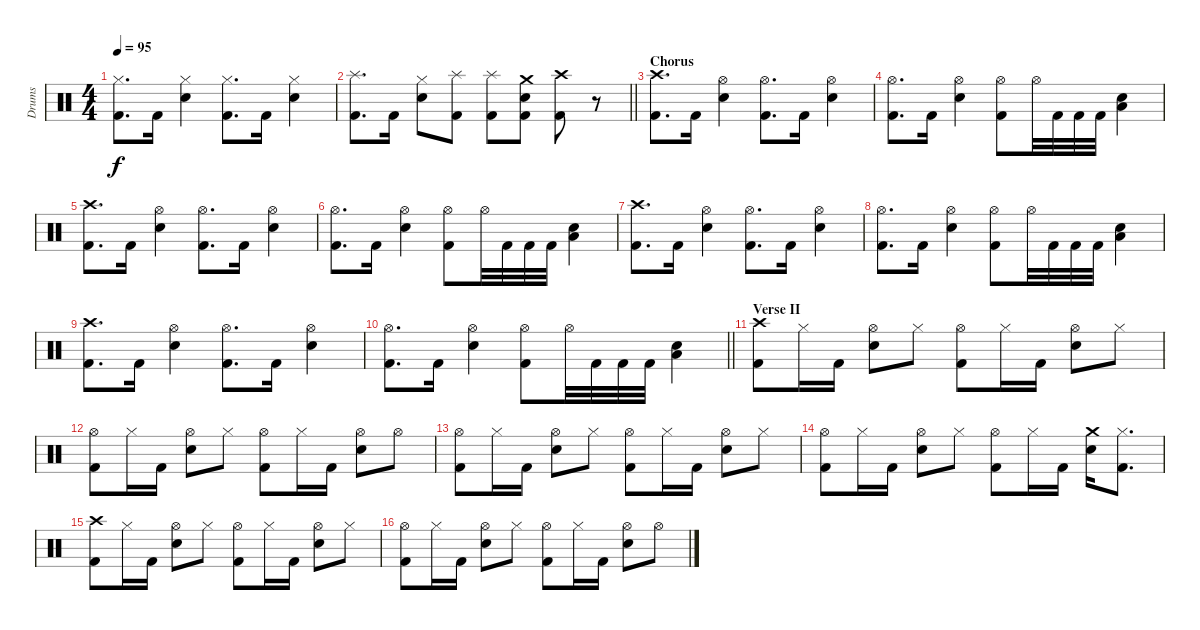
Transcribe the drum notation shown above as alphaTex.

\track ("Drums" "Drums") {instrument percussion}
\staff {score}
\articulation defaults
\ts (4 4)
\tempo 95
\clef neutral
\ks c
("Hi-Hat (closed)" "Kick (hit) 2").8{d dy f} "Kick (hit) 2".16 ("Hi-Hat (closed)" "Snare (hit) 2").4 ("Hi-Hat (closed)" "Kick (hit) 2").8{d} "Kick (hit) 2".16 ("Hi-Hat (closed)" "Snare (hit) 2").4 |
\barLineRight lightlight
("Splash (hit)" "Kick (hit) 2").8{d} "Kick (hit) 2".16 ("Hi-Hat (closed)" "Snare (hit) 2").8 ("Splash (hit)" "Kick (hit) 2").8 ("Splash (hit)" "Kick (hit) 2").8 ("Crash medium (hit)" "Snare (hit) 2" "Kick (hit) 2").8 ("Crash high (hit)" "Kick (hit) 2").8 r.8 |
\section ("" "Chorus")
("Crash high (hit)" "Kick (hit) 2").8{d} "Kick (hit) 2".16 ("Hi-Hat (open)" "Snare (hit) 2").4 ("Hi-Hat (open)" "Kick (hit) 2").8{d} "Kick (hit) 2".16 ("Hi-Hat (open)" "Snare (hit) 2").4 |
("Hi-Hat (open)" "Kick (hit) 2").8{d} "Kick (hit) 2".16 ("Hi-Hat (open)" "Snare (hit) 2").4 ("Hi-Hat (open)" "Kick (hit) 2").8 "Hi-Hat (open)".32 "Kick (hit) 2".32 "Kick (hit) 2".32 "Kick (hit) 2".32 ("Snare (hit) 2" "Low Floor Tom (hit)").4 |
("Crash high (hit)" "Kick (hit) 2").8{d} "Kick (hit) 2".16 ("Hi-Hat (open)" "Snare (hit) 2").4 ("Hi-Hat (open)" "Kick (hit) 2").8{d} "Kick (hit) 2".16 ("Hi-Hat (open)" "Snare (hit) 2").4 |
("Hi-Hat (open)" "Kick (hit) 2").8{d} "Kick (hit) 2".16 ("Hi-Hat (open)" "Snare (hit) 2").4 ("Hi-Hat (open)" "Kick (hit) 2").8 "Hi-Hat (open)".32 "Kick (hit) 2".32 "Kick (hit) 2".32 "Kick (hit) 2".32 ("Snare (hit) 2" "Low Floor Tom (hit)").4 |
("Crash high (hit)" "Kick (hit) 2").8{d} "Kick (hit) 2".16 ("Hi-Hat (open)" "Snare (hit) 2").4 ("Hi-Hat (open)" "Kick (hit) 2").8{d} "Kick (hit) 2".16 ("Hi-Hat (open)" "Snare (hit) 2").4 |
("Hi-Hat (open)" "Kick (hit) 2").8{d} "Kick (hit) 2".16 ("Hi-Hat (open)" "Snare (hit) 2").4 ("Hi-Hat (open)" "Kick (hit) 2").8 "Hi-Hat (open)".32 "Kick (hit) 2".32 "Kick (hit) 2".32 "Kick (hit) 2".32 ("Snare (hit) 2" "Low Floor Tom (hit)").4 |
("Crash high (hit)" "Kick (hit) 2").8{d} "Kick (hit) 2".16 ("Hi-Hat (open)" "Snare (hit) 2").4 ("Hi-Hat (open)" "Kick (hit) 2").8{d} "Kick (hit) 2".16 ("Hi-Hat (open)" "Snare (hit) 2").4 |
\barLineRight lightlight
("Hi-Hat (open)" "Kick (hit) 2").8{d} "Kick (hit) 2".16 ("Hi-Hat (open)" "Snare (hit) 2").4 ("Hi-Hat (open)" "Kick (hit) 2").8 "Hi-Hat (open)".32 "Kick (hit) 2".32 "Kick (hit) 2".32 "Kick (hit) 2".32 ("Snare (hit) 2" "Low Floor Tom (hit)").4 |
\section ("" "Verse II")
("Crash high (hit)" "Kick (hit) 2").8 "Hi-Hat (closed)".16 "Kick (hit) 2".16 ("Hi-Hat (open)" "Snare (hit) 2").8 "Hi-Hat (closed)".8 ("Hi-Hat (open)" "Kick (hit) 2").8 "Hi-Hat (closed)".16 "Kick (hit) 2".16 ("Hi-Hat (open)" "Snare (hit) 2").8 "Hi-Hat (closed)".8 |
("Hi-Hat (open)" "Kick (hit) 2").8 "Hi-Hat (closed)".16 "Kick (hit) 2".16 ("Hi-Hat (open)" "Snare (hit) 2").8 "Hi-Hat (closed)".8 ("Hi-Hat (open)" "Kick (hit) 2").8 "Hi-Hat (closed)".16 "Kick (hit) 2".16 ("Hi-Hat (open)" "Snare (hit) 2").8 "Hi-Hat (open)".8 |
("Hi-Hat (open)" "Kick (hit) 2").8 "Hi-Hat (closed)".16 "Kick (hit) 2".16 ("Hi-Hat (open)" "Snare (hit) 2").8 "Hi-Hat (closed)".8 ("Hi-Hat (open)" "Kick (hit) 2").8 "Hi-Hat (closed)".16 "Kick (hit) 2".16 ("Hi-Hat (open)" "Snare (hit) 2").8 "Hi-Hat (closed)".8 |
("Hi-Hat (open)" "Kick (hit) 2").8 "Hi-Hat (closed)".16 "Kick (hit) 2".16 ("Hi-Hat (open)" "Snare (hit) 2").8 "Hi-Hat (closed)".8 ("Hi-Hat (open)" "Kick (hit) 2").8 "Hi-Hat (closed)".16 "Kick (hit) 2".16 ("Crash medium (hit)" "Snare (hit) 2").16 ("Hi-Hat (closed)" "Kick (hit) 2").8{d} |
("Crash high (hit)" "Kick (hit) 2").8 "Hi-Hat (closed)".16 "Kick (hit) 2".16 ("Hi-Hat (open)" "Snare (hit) 2").8 "Hi-Hat (closed)".8 ("Hi-Hat (open)" "Kick (hit) 2").8 "Hi-Hat (closed)".16 "Kick (hit) 2".16 ("Hi-Hat (open)" "Snare (hit) 2").8 "Hi-Hat (closed)".8 |
("Hi-Hat (open)" "Kick (hit) 2").8 "Hi-Hat (closed)".16 "Kick (hit) 2".16 ("Hi-Hat (open)" "Snare (hit) 2").8 "Hi-Hat (closed)".8 ("Hi-Hat (open)" "Kick (hit) 2").8 "Hi-Hat (closed)".16 "Kick (hit) 2".16 ("Hi-Hat (open)" "Snare (hit) 2").8 "Hi-Hat (open)".8
